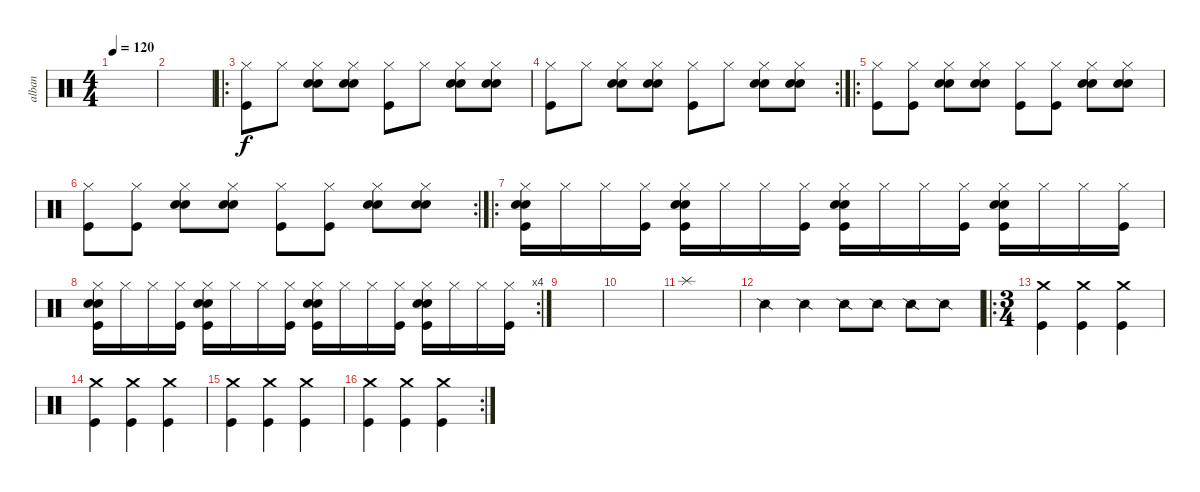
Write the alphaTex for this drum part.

\track ("alban" "alban") {instrument percussion}
\staff {score}
\articulation defaults
\ts (4 4)
\tempo 120
\clef neutral
\ks c
|
|
\ro
("Hi-Hat (closed)" "Kick (hit)").8 "Hi-Hat (closed)".8 ("Electric Snare (hit)" "Hi-Hat (closed)" "Snare (hit) 2").8 ("Electric Snare (hit)" "Hi-Hat (closed)" "Snare (hit) 2").8 ("Hi-Hat (closed)" "Kick (hit)").8 "Hi-Hat (closed)".8 ("Electric Snare (hit)" "Hi-Hat (closed)" "Snare (hit) 2").8 ("Electric Snare (hit)" "Hi-Hat (closed)" "Snare (hit) 2").8 |
\rc 2
("Hi-Hat (closed)" "Kick (hit)").8 "Hi-Hat (closed)".8 ("Electric Snare (hit)" "Hi-Hat (closed)" "Snare (hit) 2").8 ("Electric Snare (hit)" "Hi-Hat (closed)" "Snare (hit) 2").8 ("Hi-Hat (closed)" "Kick (hit)").8 "Hi-Hat (closed)".8 ("Electric Snare (hit)" "Hi-Hat (closed)" "Snare (hit) 2").8 ("Electric Snare (hit)" "Hi-Hat (closed)" "Snare (hit) 2").8 |
\ro
("Hi-Hat (closed)" "Kick (hit)").8 ("Hi-Hat (closed)" "Kick (hit)").8 ("Electric Snare (hit)" "Hi-Hat (closed)" "Snare (hit) 2").8 ("Electric Snare (hit)" "Hi-Hat (closed)" "Snare (hit) 2").8 ("Hi-Hat (closed)" "Kick (hit)").8 ("Hi-Hat (closed)" "Kick (hit)").8 ("Electric Snare (hit)" "Hi-Hat (closed)" "Snare (hit) 2").8 ("Electric Snare (hit)" "Hi-Hat (closed)" "Snare (hit) 2").8 |
\rc 2
("Hi-Hat (closed)" "Kick (hit)").8 ("Hi-Hat (closed)" "Kick (hit)").8 ("Electric Snare (hit)" "Hi-Hat (closed)" "Snare (hit) 2").8 ("Electric Snare (hit)" "Hi-Hat (closed)" "Snare (hit) 2").8 ("Hi-Hat (closed)" "Kick (hit)").8 ("Hi-Hat (closed)" "Kick (hit)").8 ("Electric Snare (hit)" "Hi-Hat (closed)" "Snare (hit) 2").8 ("Electric Snare (hit)" "Hi-Hat (closed)" "Snare (hit) 2").8 |
\ro
("Electric Snare (hit)" "Hi-Hat (closed)" "Snare (hit) 2" "Kick (hit)").16 "Hi-Hat (closed)".16 "Hi-Hat (closed)".16 ("Hi-Hat (closed)" "Kick (hit)").16 ("Electric Snare (hit)" "Hi-Hat (closed)" "Snare (hit) 2" "Kick (hit)").16 "Hi-Hat (closed)".16 "Hi-Hat (closed)".16 ("Hi-Hat (closed)" "Kick (hit)").16 ("Electric Snare (hit)" "Hi-Hat (closed)" "Snare (hit) 2" "Kick (hit)").16 "Hi-Hat (closed)".16 "Hi-Hat (closed)".16 ("Hi-Hat (closed)" "Kick (hit)").16 ("Electric Snare (hit)" "Hi-Hat (closed)" "Snare (hit) 2" "Kick (hit)").16 "Hi-Hat (closed)".16 "Hi-Hat (closed)".16 ("Hi-Hat (closed)" "Kick (hit)").16 |
\rc 4
("Electric Snare (hit)" "Hi-Hat (closed)" "Snare (hit) 2" "Kick (hit)").16 "Hi-Hat (closed)".16 "Hi-Hat (closed)".16 ("Hi-Hat (closed)" "Kick (hit)").16 ("Electric Snare (hit)" "Hi-Hat (closed)" "Snare (hit) 2" "Kick (hit)").16 "Hi-Hat (closed)".16 "Hi-Hat (closed)".16 ("Hi-Hat (closed)" "Kick (hit)").16 ("Electric Snare (hit)" "Hi-Hat (closed)" "Snare (hit) 2" "Kick (hit)").16 "Hi-Hat (closed)".16 "Hi-Hat (closed)".16 ("Hi-Hat (closed)" "Kick (hit)").16 ("Electric Snare (hit)" "Hi-Hat (closed)" "Snare (hit) 2" "Kick (hit)").16 "Hi-Hat (closed)".16 "Hi-Hat (closed)".16 ("Hi-Hat (closed)" "Kick (hit)").16 |
|
|
"Splash (hit)".1 |
"Snare (side stick) 2".4 "Snare (side stick) 2".4 "Snare (side stick) 2".8 "Snare (side stick) 2".8 "Snare (side stick) 2".8 "Snare (side stick) 2".8 |
\ro
\ts (3 4)
("Kick (hit)" "Crash medium (hit)").4 ("Kick (hit)" "Crash medium (hit)").4 ("Kick (hit)" "Crash medium (hit)").4 |
("Kick (hit)" "Crash medium (hit)").4 ("Kick (hit)" "Crash medium (hit)").4 ("Kick (hit)" "Crash medium (hit)").4 |
("Kick (hit)" "Crash medium (hit)").4 ("Kick (hit)" "Crash medium (hit)").4 ("Kick (hit)" "Crash medium (hit)").4 |
\rc 2
("Kick (hit)" "Crash medium (hit)").4 ("Kick (hit)" "Crash medium (hit)").4 ("Kick (hit)" "Crash medium (hit)").4
